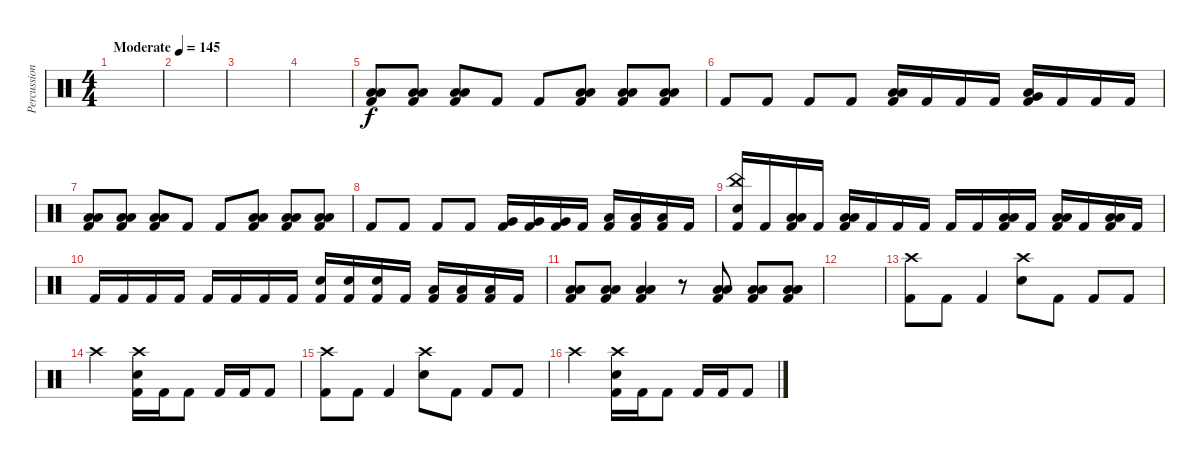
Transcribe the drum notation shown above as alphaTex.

\track ("Percussion" "Percussion") {instrument percussion}
\staff {score}
\articulation defaults
\ts (4 4)
\tempo (145 "Moderate")
\clef neutral
\ks c
|
|
|
|
("Low Tom (hit)" "Low Floor Tom (hit)" "Kick (hit) 2").8 ("Low Tom (hit)" "Low Floor Tom (hit)" "Kick (hit) 2").8 ("Low Tom (hit)" "Low Floor Tom (hit)" "Kick (hit) 2").8 "Kick (hit) 2".8 "Kick (hit) 2".8 ("Low Tom (hit)" "Low Floor Tom (hit)" "Kick (hit) 2").8 ("Low Tom (hit)" "Low Floor Tom (hit)" "Kick (hit) 2").8 ("Low Tom (hit)" "Low Floor Tom (hit)" "Kick (hit) 2").8 |
"Kick (hit) 2".8 "Kick (hit) 2".8 "Kick (hit) 2".8 "Kick (hit) 2".8 ("Low Tom (hit)" "Low Floor Tom (hit)" "Kick (hit) 2").16 "Kick (hit) 2".16 "Kick (hit) 2".16 "Kick (hit) 2".16 ("Very Low Tom (hit)" "Low Floor Tom (hit)" "Kick (hit) 2").16 "Kick (hit) 2".16 "Kick (hit) 2".16 "Kick (hit) 2".16 |
("Low Tom (hit)" "Low Floor Tom (hit)" "Kick (hit) 2").8 ("Low Tom (hit)" "Low Floor Tom (hit)" "Kick (hit) 2").8 ("Low Tom (hit)" "Low Floor Tom (hit)" "Kick (hit) 2").8 "Kick (hit) 2".8 "Kick (hit) 2".8 ("Low Tom (hit)" "Low Floor Tom (hit)" "Kick (hit) 2").8 ("Low Tom (hit)" "Low Floor Tom (hit)" "Kick (hit) 2").8 ("Low Tom (hit)" "Low Floor Tom (hit)" "Kick (hit) 2").8 |
"Kick (hit) 2".8 "Kick (hit) 2".8 "Kick (hit) 2".8 "Kick (hit) 2".8 ("Very Low Tom (hit)" "Kick (hit) 2").16 ("Very Low Tom (hit)" "Kick (hit) 2").16 ("Very Low Tom (hit)" "Kick (hit) 2").16 "Kick (hit) 2".16 ("Low Floor Tom (hit)" "Kick (hit) 2").16 ("Low Floor Tom (hit)" "Kick (hit) 2").16 ("Low Floor Tom (hit)" "Kick (hit) 2").16 "Kick (hit) 2".16 |
("China (hit)" "Electric Snare (hit)" "Kick (hit) 2").16 "Kick (hit) 2".16 ("Low Tom (hit)" "Low Floor Tom (hit)" "Kick (hit) 2").16 "Kick (hit) 2".16 ("Low Tom (hit)" "Low Floor Tom (hit)" "Kick (hit) 2").16 "Kick (hit) 2".16 "Kick (hit) 2".16 "Kick (hit) 2".16 "Kick (hit) 2".16 "Kick (hit) 2".16 ("Low Tom (hit)" "Low Floor Tom (hit)" "Kick (hit) 2").16 "Kick (hit) 2".16 ("Low Tom (hit)" "Low Floor Tom (hit)" "Kick (hit) 2").16 "Kick (hit) 2".16 ("Low Tom (hit)" "Low Floor Tom (hit)" "Kick (hit) 2").16 "Kick (hit) 2".16 |
"Kick (hit) 2".16 "Kick (hit) 2".16 "Kick (hit) 2".16 "Kick (hit) 2".16 "Kick (hit) 2".16 "Kick (hit) 2".16 "Kick (hit) 2".16 "Kick (hit) 2".16 ("Electric Snare (hit)" "Kick (hit) 2").16 ("Electric Snare (hit)" "Kick (hit) 2").16 ("Electric Snare (hit)" "Kick (hit) 2").16 "Kick (hit) 2".16 ("Low Floor Tom (hit)" "Kick (hit) 2").16 ("Low Floor Tom (hit)" "Kick (hit) 2").16 ("Low Floor Tom (hit)" "Kick (hit) 2").16 "Kick (hit) 2".16 |
("Low Tom (hit)" "Low Floor Tom (hit)" "Kick (hit) 2").8 ("Low Tom (hit)" "Low Floor Tom (hit)" "Kick (hit) 2").8 ("Low Tom (hit)" "Low Floor Tom (hit)" "Kick (hit) 2").4 r.8 ("Low Tom (hit)" "Low Floor Tom (hit)" "Kick (hit) 2").8 ("Low Tom (hit)" "Low Floor Tom (hit)" "Kick (hit) 2").8 ("Low Tom (hit)" "Low Floor Tom (hit)" "Kick (hit) 2").8 |
|
("Crash high (hit)" "Kick (hit) 2").8 "Kick (hit) 2".8 "Kick (hit) 2".4 ("Crash high (hit)" "Electric Snare (hit)").8 "Kick (hit) 2".8 "Kick (hit) 2".8 "Kick (hit) 2".8 |
"Crash high (hit)".2 ("Crash high (hit)" "Electric Snare (hit)" "Kick (hit) 2").16 "Kick (hit) 2".16 "Kick (hit) 2".8 "Kick (hit) 2".16 "Kick (hit) 2".16 "Kick (hit) 2".8 |
("Crash high (hit)" "Kick (hit) 2").8 "Kick (hit) 2".8 "Kick (hit) 2".4 ("Crash high (hit)" "Electric Snare (hit)").8 "Kick (hit) 2".8 "Kick (hit) 2".8 "Kick (hit) 2".8 |
"Crash high (hit)".2 ("Crash high (hit)" "Electric Snare (hit)" "Kick (hit) 2").16 "Kick (hit) 2".16 "Kick (hit) 2".8 "Kick (hit) 2".16 "Kick (hit) 2".16 "Kick (hit) 2".8
